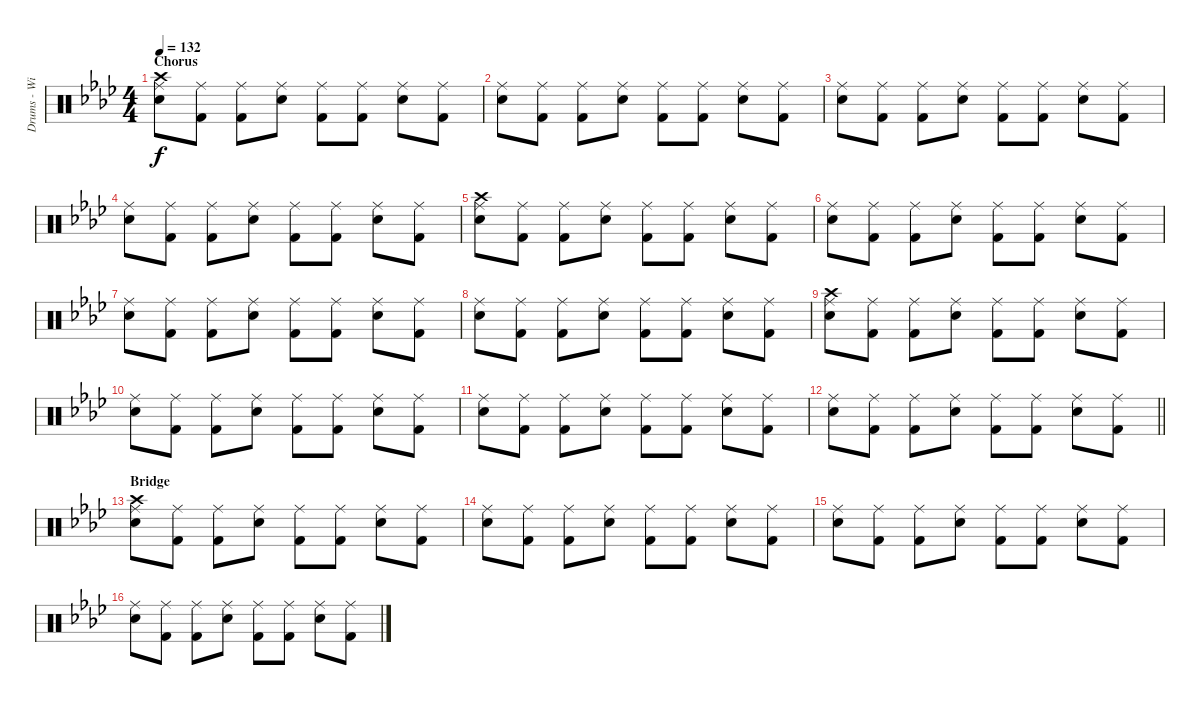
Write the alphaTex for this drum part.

\track ("Drums - Will" "Drums - Wi") {instrument percussion}
\staff {score}
\articulation defaults
\ts (4 4)
\section ("" "Chorus")
\tempo 132
\clef neutral
\ks ab
("Crash high (hit)" "Ride (middle)" "Electric Snare (hit)").8{dy f} ("Ride (middle)" "Kick (hit) 2").8 ("Ride (middle)" "Kick (hit) 2").8 ("Ride (middle)" "Electric Snare (hit)").8 ("Ride (middle)" "Kick (hit) 2").8 ("Ride (middle)" "Kick (hit) 2").8 ("Ride (middle)" "Electric Snare (hit)").8 ("Ride (middle)" "Kick (hit) 2").8 |
("Ride (middle)" "Electric Snare (hit)").8 ("Ride (middle)" "Kick (hit) 2").8 ("Ride (middle)" "Kick (hit) 2").8 ("Ride (middle)" "Electric Snare (hit)").8 ("Ride (middle)" "Kick (hit) 2").8 ("Ride (middle)" "Kick (hit) 2").8 ("Ride (middle)" "Electric Snare (hit)").8 ("Ride (middle)" "Kick (hit) 2").8 |
("Ride (middle)" "Electric Snare (hit)").8 ("Ride (middle)" "Kick (hit) 2").8 ("Ride (middle)" "Kick (hit) 2").8 ("Ride (middle)" "Electric Snare (hit)").8 ("Ride (middle)" "Kick (hit) 2").8 ("Ride (middle)" "Kick (hit) 2").8 ("Ride (middle)" "Electric Snare (hit)").8 ("Ride (middle)" "Kick (hit) 2").8 |
("Ride (middle)" "Electric Snare (hit)").8 ("Ride (middle)" "Kick (hit) 2").8 ("Ride (middle)" "Kick (hit) 2").8 ("Ride (middle)" "Electric Snare (hit)").8 ("Ride (middle)" "Kick (hit) 2").8 ("Ride (middle)" "Kick (hit) 2").8 ("Ride (middle)" "Electric Snare (hit)").8 ("Ride (middle)" "Kick (hit) 2").8 |
("Crash high (hit)" "Ride (middle)" "Electric Snare (hit)").8 ("Ride (middle)" "Kick (hit) 2").8 ("Ride (middle)" "Kick (hit) 2").8 ("Ride (middle)" "Electric Snare (hit)").8 ("Ride (middle)" "Kick (hit) 2").8 ("Ride (middle)" "Kick (hit) 2").8 ("Ride (middle)" "Electric Snare (hit)").8 ("Ride (middle)" "Kick (hit) 2").8 |
("Ride (middle)" "Electric Snare (hit)").8 ("Ride (middle)" "Kick (hit) 2").8 ("Ride (middle)" "Kick (hit) 2").8 ("Ride (middle)" "Electric Snare (hit)").8 ("Ride (middle)" "Kick (hit) 2").8 ("Ride (middle)" "Kick (hit) 2").8 ("Ride (middle)" "Electric Snare (hit)").8 ("Ride (middle)" "Kick (hit) 2").8 |
("Ride (middle)" "Electric Snare (hit)").8 ("Ride (middle)" "Kick (hit) 2").8 ("Ride (middle)" "Kick (hit) 2").8 ("Ride (middle)" "Electric Snare (hit)").8 ("Ride (middle)" "Kick (hit) 2").8 ("Ride (middle)" "Kick (hit) 2").8 ("Ride (middle)" "Electric Snare (hit)").8 ("Ride (middle)" "Kick (hit) 2").8 |
("Ride (middle)" "Electric Snare (hit)").8 ("Ride (middle)" "Kick (hit) 2").8 ("Ride (middle)" "Kick (hit) 2").8 ("Ride (middle)" "Electric Snare (hit)").8 ("Ride (middle)" "Kick (hit) 2").8 ("Ride (middle)" "Kick (hit) 2").8 ("Ride (middle)" "Electric Snare (hit)").8 ("Ride (middle)" "Kick (hit) 2").8 |
("Crash high (hit)" "Ride (middle)" "Electric Snare (hit)").8 ("Ride (middle)" "Kick (hit) 2").8 ("Ride (middle)" "Kick (hit) 2").8 ("Ride (middle)" "Electric Snare (hit)").8 ("Ride (middle)" "Kick (hit) 2").8 ("Ride (middle)" "Kick (hit) 2").8 ("Ride (middle)" "Electric Snare (hit)").8 ("Ride (middle)" "Kick (hit) 2").8 |
("Ride (middle)" "Electric Snare (hit)").8 ("Ride (middle)" "Kick (hit) 2").8 ("Ride (middle)" "Kick (hit) 2").8 ("Ride (middle)" "Electric Snare (hit)").8 ("Ride (middle)" "Kick (hit) 2").8 ("Ride (middle)" "Kick (hit) 2").8 ("Ride (middle)" "Electric Snare (hit)").8 ("Ride (middle)" "Kick (hit) 2").8 |
("Ride (middle)" "Electric Snare (hit)").8 ("Ride (middle)" "Kick (hit) 2").8 ("Ride (middle)" "Kick (hit) 2").8 ("Ride (middle)" "Electric Snare (hit)").8 ("Ride (middle)" "Kick (hit) 2").8 ("Ride (middle)" "Kick (hit) 2").8 ("Ride (middle)" "Electric Snare (hit)").8 ("Ride (middle)" "Kick (hit) 2").8 |
\barLineRight lightlight
("Ride (middle)" "Electric Snare (hit)").8 ("Ride (middle)" "Kick (hit) 2").8 ("Ride (middle)" "Kick (hit) 2").8 ("Ride (middle)" "Electric Snare (hit)").8 ("Ride (middle)" "Kick (hit) 2").8 ("Ride (middle)" "Kick (hit) 2").8 ("Ride (middle)" "Electric Snare (hit)").8 ("Ride (middle)" "Kick (hit) 2").8 |
\section ("" "Bridge")
("Crash high (hit)" "Ride (middle)" "Electric Snare (hit)").8 ("Ride (middle)" "Kick (hit) 2").8 ("Ride (middle)" "Kick (hit) 2").8 ("Ride (middle)" "Electric Snare (hit)").8 ("Ride (middle)" "Kick (hit) 2").8 ("Ride (middle)" "Kick (hit) 2").8 ("Ride (middle)" "Electric Snare (hit)").8 ("Ride (middle)" "Kick (hit) 2").8 |
("Ride (middle)" "Electric Snare (hit)").8 ("Ride (middle)" "Kick (hit) 2").8 ("Ride (middle)" "Kick (hit) 2").8 ("Ride (middle)" "Electric Snare (hit)").8 ("Ride (middle)" "Kick (hit) 2").8 ("Ride (middle)" "Kick (hit) 2").8 ("Ride (middle)" "Electric Snare (hit)").8 ("Ride (middle)" "Kick (hit) 2").8 |
("Ride (middle)" "Electric Snare (hit)").8 ("Ride (middle)" "Kick (hit) 2").8 ("Ride (middle)" "Kick (hit) 2").8 ("Ride (middle)" "Electric Snare (hit)").8 ("Ride (middle)" "Kick (hit) 2").8 ("Ride (middle)" "Kick (hit) 2").8 ("Ride (middle)" "Electric Snare (hit)").8 ("Ride (middle)" "Kick (hit) 2").8 |
("Ride (middle)" "Electric Snare (hit)").8 ("Ride (middle)" "Kick (hit) 2").8 ("Ride (middle)" "Kick (hit) 2").8 ("Ride (middle)" "Electric Snare (hit)").8 ("Ride (middle)" "Kick (hit) 2").8 ("Ride (middle)" "Kick (hit) 2").8 ("Ride (middle)" "Electric Snare (hit)").8 ("Ride (middle)" "Kick (hit) 2").8
